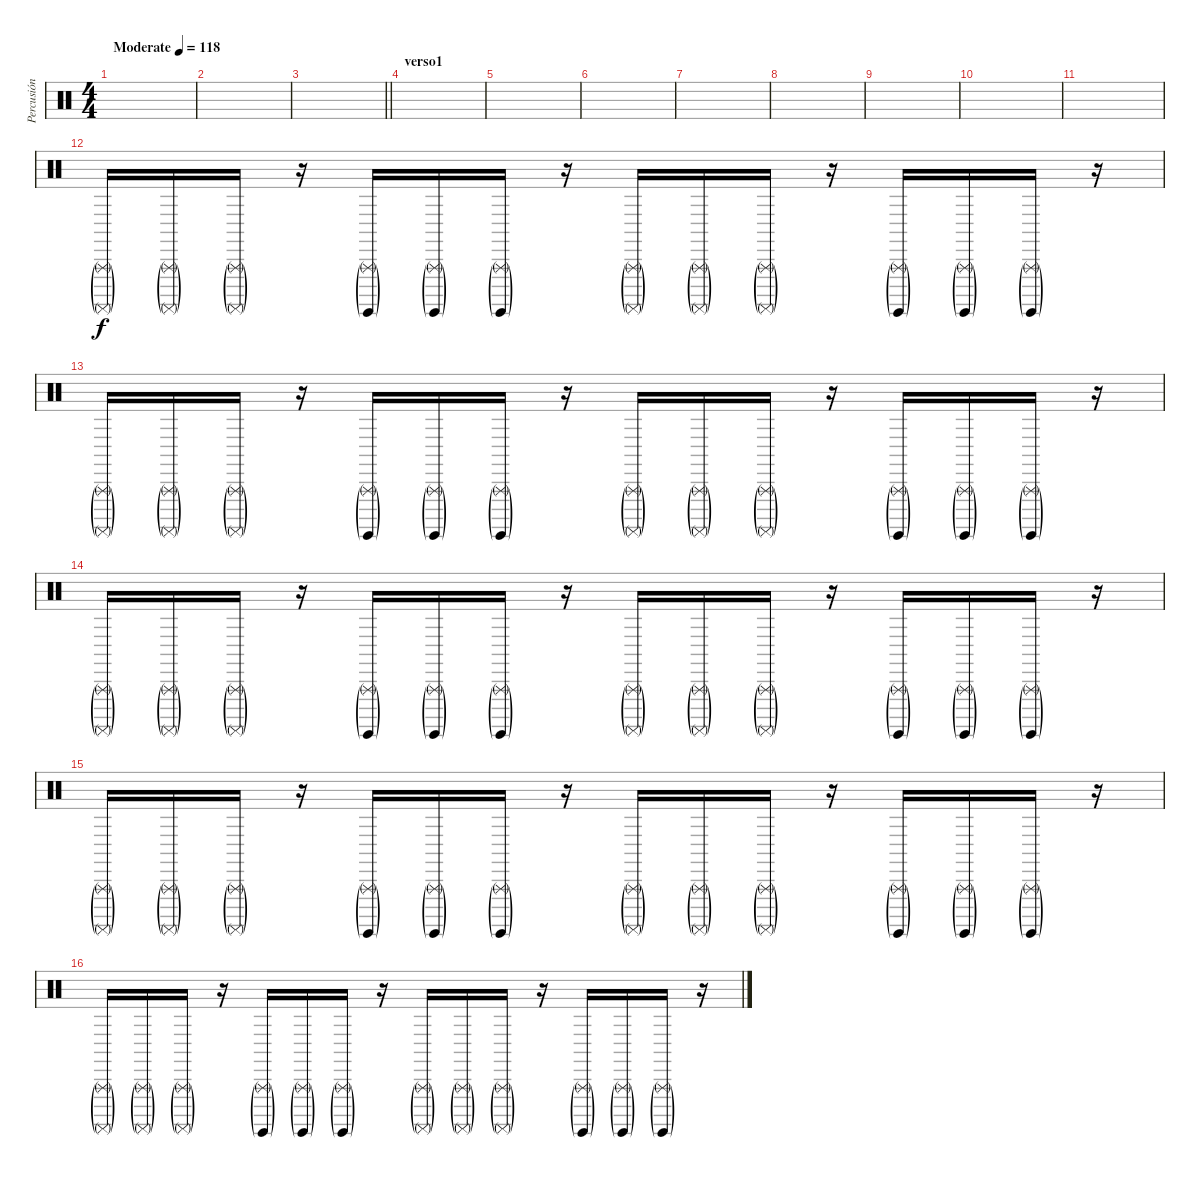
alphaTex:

\track ("Percusión" "Percusión") {instrument percussion}
\staff {score}
\articulation defaults
\ts (4 4)
\tempo (118 "Moderate")
\clef neutral
\ks c
|
|
\barLineRight lightlight
|
\section ("" "verso1")
|
|
|
|
|
|
|
|
("Triangle (rnute)"{g} "Surdo (mute)"{g}).16 ("Triangle (rnute)"{g} "Surdo (mute)"{g}).16 ("Triangle (rnute)"{g} "Surdo (mute)"{g}).16 r.16 ("Triangle (rnute)"{g} "Surdo (hit)"{g}).16 ("Triangle (rnute)"{g} "Surdo (hit)"{g}).16 ("Triangle (rnute)"{g} "Surdo (hit)"{g}).16 r.16 ("Triangle (rnute)"{g} "Surdo (mute)"{g}).16 ("Triangle (rnute)"{g} "Surdo (mute)"{g}).16 ("Triangle (rnute)"{g} "Surdo (mute)"{g}).16 r.16 ("Triangle (rnute)"{g} "Surdo (hit)"{g}).16 ("Triangle (rnute)"{g} "Surdo (hit)"{g}).16 ("Triangle (rnute)"{g} "Surdo (hit)"{g}).16 r.16 |
("Triangle (rnute)"{g} "Surdo (mute)"{g}).16 ("Triangle (rnute)"{g} "Surdo (mute)"{g}).16 ("Triangle (rnute)"{g} "Surdo (mute)"{g}).16 r.16 ("Triangle (rnute)"{g} "Surdo (hit)"{g}).16 ("Triangle (rnute)"{g} "Surdo (hit)"{g}).16 ("Triangle (rnute)"{g} "Surdo (hit)"{g}).16 r.16 ("Triangle (rnute)"{g} "Surdo (mute)"{g}).16 ("Triangle (rnute)"{g} "Surdo (mute)"{g}).16 ("Triangle (rnute)"{g} "Surdo (mute)"{g}).16 r.16 ("Triangle (rnute)"{g} "Surdo (hit)"{g}).16 ("Triangle (rnute)"{g} "Surdo (hit)"{g}).16 ("Triangle (rnute)"{g} "Surdo (hit)"{g}).16 r.16 |
("Triangle (rnute)"{g} "Surdo (mute)"{g}).16 ("Triangle (rnute)"{g} "Surdo (mute)"{g}).16 ("Triangle (rnute)"{g} "Surdo (mute)"{g}).16 r.16 ("Triangle (rnute)"{g} "Surdo (hit)"{g}).16 ("Triangle (rnute)"{g} "Surdo (hit)"{g}).16 ("Triangle (rnute)"{g} "Surdo (hit)"{g}).16 r.16 ("Triangle (rnute)"{g} "Surdo (mute)"{g}).16 ("Triangle (rnute)"{g} "Surdo (mute)"{g}).16 ("Triangle (rnute)"{g} "Surdo (mute)"{g}).16 r.16 ("Triangle (rnute)"{g} "Surdo (hit)"{g}).16 ("Triangle (rnute)"{g} "Surdo (hit)"{g}).16 ("Triangle (rnute)"{g} "Surdo (hit)"{g}).16 r.16 |
("Triangle (rnute)"{g} "Surdo (mute)"{g}).16 ("Triangle (rnute)"{g} "Surdo (mute)"{g}).16 ("Triangle (rnute)"{g} "Surdo (mute)"{g}).16 r.16 ("Triangle (rnute)"{g} "Surdo (hit)"{g}).16 ("Triangle (rnute)"{g} "Surdo (hit)"{g}).16 ("Triangle (rnute)"{g} "Surdo (hit)"{g}).16 r.16 ("Triangle (rnute)"{g} "Surdo (mute)"{g}).16 ("Triangle (rnute)"{g} "Surdo (mute)"{g}).16 ("Triangle (rnute)"{g} "Surdo (mute)"{g}).16 r.16 ("Triangle (rnute)"{g} "Surdo (hit)"{g}).16 ("Triangle (rnute)"{g} "Surdo (hit)"{g}).16 ("Triangle (rnute)"{g} "Surdo (hit)"{g}).16 r.16 |
("Triangle (rnute)"{g} "Surdo (mute)"{g}).16 ("Triangle (rnute)"{g} "Surdo (mute)"{g}).16 ("Triangle (rnute)"{g} "Surdo (mute)"{g}).16 r.16 ("Triangle (rnute)"{g} "Surdo (hit)"{g}).16 ("Triangle (rnute)"{g} "Surdo (hit)"{g}).16 ("Triangle (rnute)"{g} "Surdo (hit)"{g}).16 r.16 ("Triangle (rnute)"{g} "Surdo (mute)"{g}).16 ("Triangle (rnute)"{g} "Surdo (mute)"{g}).16 ("Triangle (rnute)"{g} "Surdo (mute)"{g}).16 r.16 ("Triangle (rnute)"{g} "Surdo (hit)"{g}).16 ("Triangle (rnute)"{g} "Surdo (hit)"{g}).16 ("Triangle (rnute)"{g} "Surdo (hit)"{g}).16 r.16
